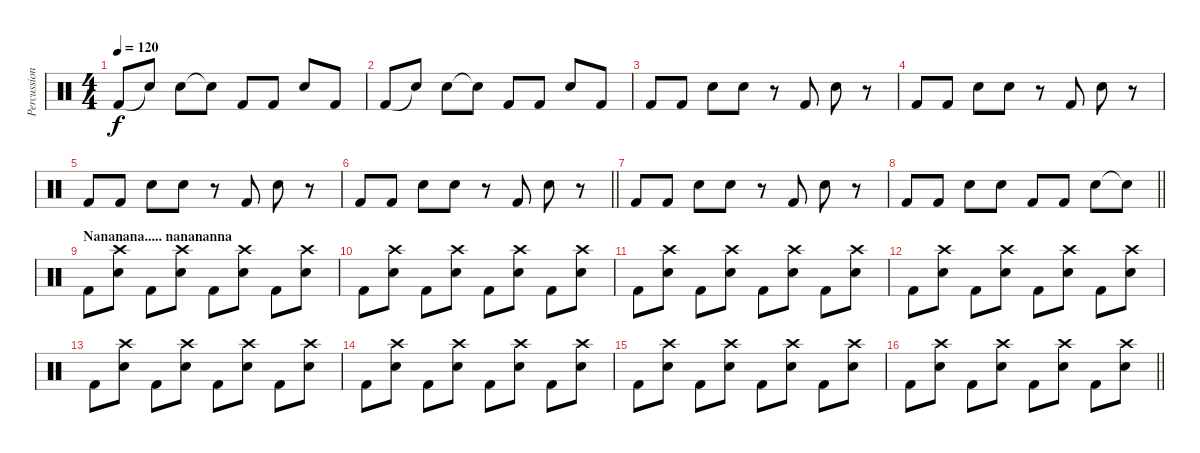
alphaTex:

\track ("Percussion" "Percussion") {instrument percussion}
\staff {score}
\articulation defaults
\ts (4 4)
\tempo 120
\clef neutral
\ks c "Kick (hit) 2".8{dy f} "Snare (hit)"{t}.8 "Snare (hit) 2".8 "Snare (hit)"{t}.8 "Kick (hit) 2".8 "Kick (hit) 2".8 "Snare (hit) 2".8 "Kick (hit) 2".8
|
"Kick (hit) 2".8 "Snare (hit)"{t}.8 "Snare (hit) 2".8 "Snare (hit)"{t}.8 "Kick (hit) 2".8 "Kick (hit) 2".8 "Snare (hit) 2".8 "Kick (hit) 2".8 |
"Kick (hit) 2".8 "Kick (hit) 2".8 "Snare (hit) 2".8 "Snare (hit) 2".8 r.8 "Kick (hit) 2".8 "Snare (hit) 2".8 r.8 |
"Kick (hit) 2".8 "Kick (hit) 2".8 "Snare (hit) 2".8 "Snare (hit) 2".8 r.8 "Kick (hit) 2".8 "Snare (hit) 2".8 r.8 |
"Kick (hit) 2".8 "Kick (hit) 2".8 "Snare (hit) 2".8 "Snare (hit) 2".8 r.8 "Kick (hit) 2".8 "Snare (hit) 2".8 r.8 |
\barLineRight lightlight "Kick (hit) 2".8 "Kick (hit) 2".8 "Snare (hit) 2".8 "Snare (hit) 2".8
r.8 "Kick (hit) 2".8 "Snare (hit) 2".8 r.8 |
"Kick (hit) 2".8 "Kick (hit) 2".8 "Snare (hit) 2".8 "Snare (hit) 2".8 r.8 "Kick (hit) 2".8 "Snare (hit) 2".8 r.8 |
\barLineRight lightlight "Kick (hit) 2".8 "Kick (hit) 2".8 "Snare (hit) 2".8 "Snare (hit) 2".8 "Kick (hit) 2".8 "Kick (hit) 2".8 "Snare (hit) 2".8 "Snare (hit)"{t}.8
|
\section ("" "Nananana..... nanananna")
"Kick (hit) 2".8 ("Crash high (hit)" "Snare (hit) 2").8 "Kick (hit) 2".8 ("Crash high (hit)" "Snare (hit) 2").8 "Kick (hit) 2".8 ("Crash high (hit)" "Snare (hit) 2").8 "Kick (hit) 2".8 ("Crash high (hit)" "Snare (hit) 2").8 |
"Kick (hit) 2".8 ("Crash high (hit)" "Snare (hit) 2").8 "Kick (hit) 2".8 ("Crash high (hit)" "Snare (hit) 2").8 "Kick (hit) 2".8 ("Crash high (hit)" "Snare (hit) 2").8 "Kick (hit) 2".8 ("Crash high (hit)" "Snare (hit) 2").8 |
"Kick (hit) 2".8 ("Crash high (hit)" "Snare (hit) 2").8 "Kick (hit) 2".8 ("Crash high (hit)" "Snare (hit) 2").8 "Kick (hit) 2".8 ("Crash high (hit)" "Snare (hit) 2").8 "Kick (hit) 2".8 ("Crash high (hit)" "Snare (hit) 2").8 |
"Kick (hit) 2".8 ("Crash high (hit)" "Snare (hit) 2").8 "Kick (hit) 2".8 ("Crash high (hit)" "Snare (hit) 2").8 "Kick (hit) 2".8 ("Crash high (hit)" "Snare (hit) 2").8 "Kick (hit) 2".8 ("Crash high (hit)" "Snare (hit) 2").8 |
"Kick (hit) 2".8 ("Crash high (hit)" "Snare (hit) 2").8 "Kick (hit) 2".8 ("Crash high (hit)" "Snare (hit) 2").8 "Kick (hit) 2".8 ("Crash high (hit)" "Snare (hit) 2").8 "Kick (hit) 2".8 ("Crash high (hit)" "Snare (hit) 2").8 |
"Kick (hit) 2".8 ("Crash high (hit)" "Snare (hit) 2").8 "Kick (hit) 2".8 ("Crash high (hit)" "Snare (hit) 2").8 "Kick (hit) 2".8 ("Crash high (hit)" "Snare (hit) 2").8 "Kick (hit) 2".8 ("Crash high (hit)" "Snare (hit) 2").8 |
"Kick (hit) 2".8 ("Crash high (hit)" "Snare (hit) 2").8 "Kick (hit) 2".8 ("Crash high (hit)" "Snare (hit) 2").8 "Kick (hit) 2".8 ("Crash high (hit)" "Snare (hit) 2").8 "Kick (hit) 2".8 ("Crash high (hit)" "Snare (hit) 2").8 |
\barLineRight lightlight "Kick (hit) 2".8
("Crash high (hit)" "Snare (hit) 2").8 "Kick (hit) 2".8 ("Crash high (hit)" "Snare (hit) 2").8 "Kick (hit) 2".8 ("Crash high (hit)" "Snare (hit) 2").8 "Kick (hit) 2".8 ("Crash high (hit)" "Snare (hit) 2").8
